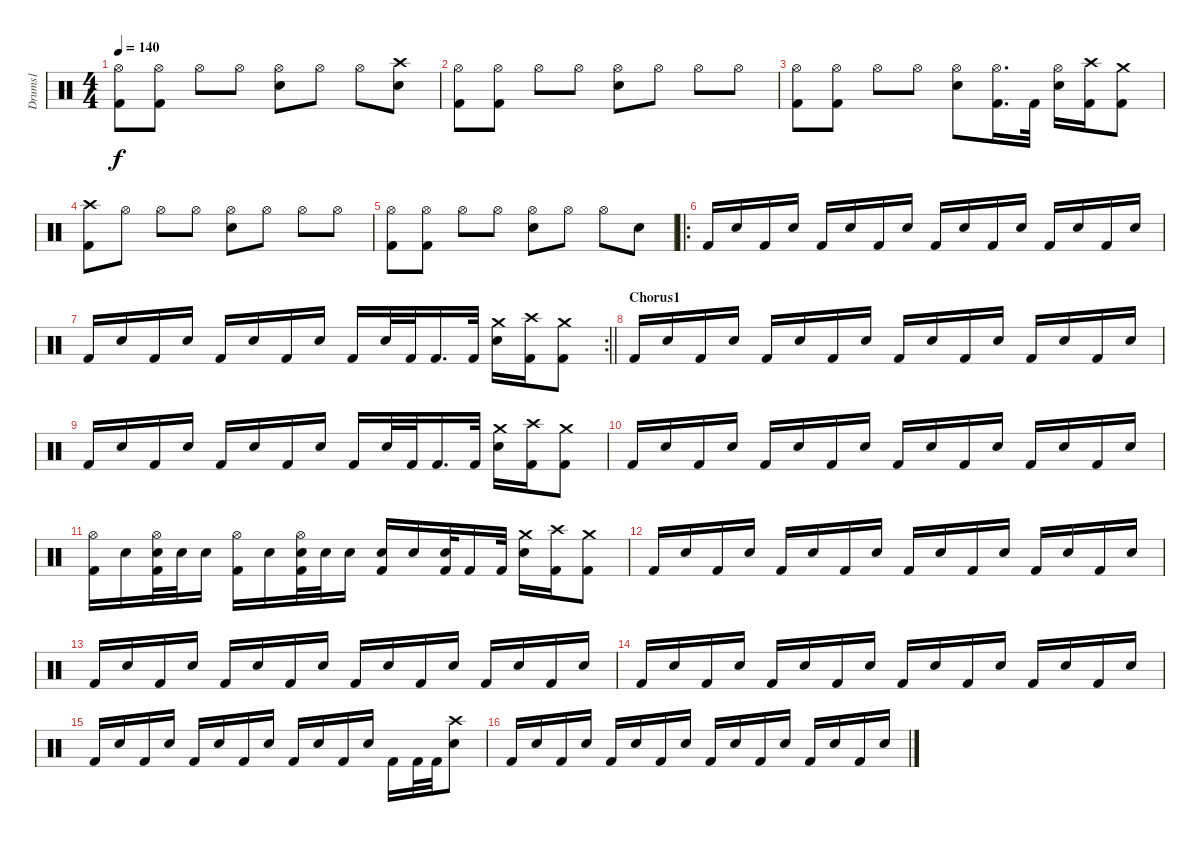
\track ("Drums1" "Drums1") {instrument percussion}
\staff {score}
\articulation defaults
\ts (4 4)
\tempo 140
\clef neutral
\ks c
("Hi-Hat (open)" "Kick (hit) 2").8{dy f} ("Hi-Hat (open)" "Kick (hit) 2").8 "Hi-Hat (open)".8 "Hi-Hat (open)".8 ("Hi-Hat (open)" "Electric Snare (hit)").8 "Hi-Hat (open)".8 "Hi-Hat (open)".8 ("Crash high (hit)" "Electric Snare (hit)").8 |
("Hi-Hat (open)" "Kick (hit) 2").8 ("Hi-Hat (open)" "Kick (hit) 2").8 "Hi-Hat (open)".8 "Hi-Hat (open)".8 ("Hi-Hat (open)" "Electric Snare (hit)").8 "Hi-Hat (open)".8 "Hi-Hat (open)".8 "Hi-Hat (open)".8 |
("Hi-Hat (open)" "Kick (hit) 2").8 ("Hi-Hat (open)" "Kick (hit) 2").8 "Hi-Hat (open)".8 "Hi-Hat (open)".8 ("Hi-Hat (open)" "Electric Snare (hit)").8 ("Hi-Hat (open)" "Kick (hit) 2").16{d} "Kick (hit) 2".32 ("Hi-Hat (open)" "Electric Snare (hit)").16 ("Crash high (hit)" "Kick (hit) 2").16 ("Crash medium (hit)" "Kick (hit) 2").8 |
("Crash high (hit)" "Kick (hit) 2").8 "Hi-Hat (open)".8 "Hi-Hat (open)".8 "Hi-Hat (open)".8 ("Hi-Hat (open)" "Electric Snare (hit)").8 "Hi-Hat (open)".8 "Hi-Hat (open)".8 "Hi-Hat (open)".8 |
("Hi-Hat (open)" "Kick (hit) 2").8 ("Hi-Hat (open)" "Kick (hit) 2").8 "Hi-Hat (open)".8 "Hi-Hat (open)".8 ("Hi-Hat (open)" "Electric Snare (hit)").8 "Hi-Hat (open)".8 "Hi-Hat (open)".8 "Electric Snare (hit)".8 |
\ro "Kick (hit) 2".16 "Electric Snare (hit)".16 "Kick (hit) 2".16 "Electric Snare (hit)".16 "Kick (hit) 2".16 "Electric Snare (hit)".16 "Kick (hit) 2".16 "Electric Snare (hit)".16 "Kick (hit) 2".16 "Electric Snare (hit)".16 "Kick (hit) 2".16 "Electric Snare (hit)".16 "Kick (hit) 2".16 "Electric Snare (hit)".16 "Kick (hit) 2".16 "Electric Snare (hit)".16
|
\rc 2
\barLineRight lightlight "Kick (hit) 2".16 "Electric Snare (hit)".16 "Kick (hit) 2".16 "Electric Snare (hit)".16 "Kick (hit) 2".16 "Electric Snare (hit)".16 "Kick (hit) 2".16 "Electric Snare (hit)".16 "Kick (hit) 2".16 "Electric Snare (hit)".32 "Kick (hit) 2".32 "Kick (hit) 2".16{d} "Kick (hit) 2".32
("Crash medium (hit)" "Electric Snare (hit)").16 ("Crash high (hit)" "Kick (hit) 2").16 ("Crash medium (hit)" "Kick (hit) 2").8 |
\section ("" "Chorus1")
"Kick (hit) 2".16 "Electric Snare (hit)".16 "Kick (hit) 2".16 "Electric Snare (hit)".16 "Kick (hit) 2".16 "Electric Snare (hit)".16 "Kick (hit) 2".16 "Electric Snare (hit)".16 "Kick (hit) 2".16 "Electric Snare (hit)".16 "Kick (hit) 2".16 "Electric Snare (hit)".16 "Kick (hit) 2".16 "Electric Snare (hit)".16 "Kick (hit) 2".16 "Electric Snare (hit)".16 |
"Kick (hit) 2".16 "Electric Snare (hit)".16 "Kick (hit) 2".16 "Electric Snare (hit)".16 "Kick (hit) 2".16 "Electric Snare (hit)".16 "Kick (hit) 2".16 "Electric Snare (hit)".16 "Kick (hit) 2".16 "Electric Snare (hit)".32 "Kick (hit) 2".32 "Kick (hit) 2".16{d} "Kick (hit) 2".32 ("Crash medium (hit)" "Electric Snare (hit)").16 ("Crash high (hit)" "Kick (hit) 2").16 ("Crash medium (hit)" "Kick (hit) 2").8 |
"Kick (hit) 2".16 "Electric Snare (hit)".16 "Kick (hit) 2".16 "Electric Snare (hit)".16 "Kick (hit) 2".16 "Electric Snare (hit)".16 "Kick (hit) 2".16 "Electric Snare (hit)".16 "Kick (hit) 2".16 "Electric Snare (hit)".16 "Kick (hit) 2".16 "Electric Snare (hit)".16 "Kick (hit) 2".16 "Electric Snare (hit)".16 "Kick (hit) 2".16 "Electric Snare (hit)".16 |
("Hi-Hat (open)" "Kick (hit) 2").16 "Electric Snare (hit)".16 ("Electric Snare (hit)" "Hi-Hat (open)" "Kick (hit) 2").32 "Electric Snare (hit)".32 "Electric Snare (hit)".16 ("Hi-Hat (open)" "Kick (hit) 2").16 "Electric Snare (hit)".16 ("Electric Snare (hit)" "Hi-Hat (open)" "Kick (hit) 2").32 "Electric Snare (hit)".32 "Electric Snare (hit)".16 ("Electric Snare (hit)" "Kick (hit) 2").16 "Electric Snare (hit)".16 ("Electric Snare (hit)" "Kick (hit) 2").32 "Kick (hit) 2".16 "Kick (hit) 2".32 ("Crash medium (hit)" "Electric Snare (hit)").16 ("Crash high (hit)" "Kick (hit) 2").16 ("Crash medium (hit)" "Kick (hit) 2").8 |
"Kick (hit) 2".16 "Electric Snare (hit)".16 "Kick (hit) 2".16 "Electric Snare (hit)".16 "Kick (hit) 2".16 "Electric Snare (hit)".16 "Kick (hit) 2".16 "Electric Snare (hit)".16 "Kick (hit) 2".16 "Electric Snare (hit)".16 "Kick (hit) 2".16 "Electric Snare (hit)".16 "Kick (hit) 2".16 "Electric Snare (hit)".16 "Kick (hit) 2".16 "Electric Snare (hit)".16 |
"Kick (hit) 2".16 "Electric Snare (hit)".16 "Kick (hit) 2".16 "Electric Snare (hit)".16 "Kick (hit) 2".16 "Electric Snare (hit)".16 "Kick (hit) 2".16 "Electric Snare (hit)".16 "Kick (hit) 2".16 "Electric Snare (hit)".16 "Kick (hit) 2".16 "Electric Snare (hit)".16 "Kick (hit) 2".16 "Electric Snare (hit)".16 "Kick (hit) 2".16 "Electric Snare (hit)".16 |
"Kick (hit) 2".16 "Electric Snare (hit)".16 "Kick (hit) 2".16 "Electric Snare (hit)".16 "Kick (hit) 2".16 "Electric Snare (hit)".16 "Kick (hit) 2".16 "Electric Snare (hit)".16 "Kick (hit) 2".16 "Electric Snare (hit)".16 "Kick (hit) 2".16 "Electric Snare (hit)".16 "Kick (hit) 2".16 "Electric Snare (hit)".16 "Kick (hit) 2".16 "Electric Snare (hit)".16 |
"Kick (hit) 2".16 "Electric Snare (hit)".16 "Kick (hit) 2".16 "Electric Snare (hit)".16 "Kick (hit) 2".16 "Electric Snare (hit)".16 "Kick (hit) 2".16 "Electric Snare (hit)".16 "Kick (hit) 2".16 "Electric Snare (hit)".16 "Kick (hit) 2".16 "Electric Snare (hit)".16 "Kick (hit) 2".16 "Kick (hit) 2".32 "Kick (hit) 2".32 ("Crash high (hit)" "Electric Snare (hit)").8 |
"Kick (hit) 2".16 "Electric Snare (hit)".16 "Kick (hit) 2".16 "Electric Snare (hit)".16 "Kick (hit) 2".16 "Electric Snare (hit)".16 "Kick (hit) 2".16 "Electric Snare (hit)".16 "Kick (hit) 2".16 "Electric Snare (hit)".16 "Kick (hit) 2".16 "Electric Snare (hit)".16 "Kick (hit) 2".16 "Electric Snare (hit)".16 "Kick (hit) 2".16 "Electric Snare (hit)".16
